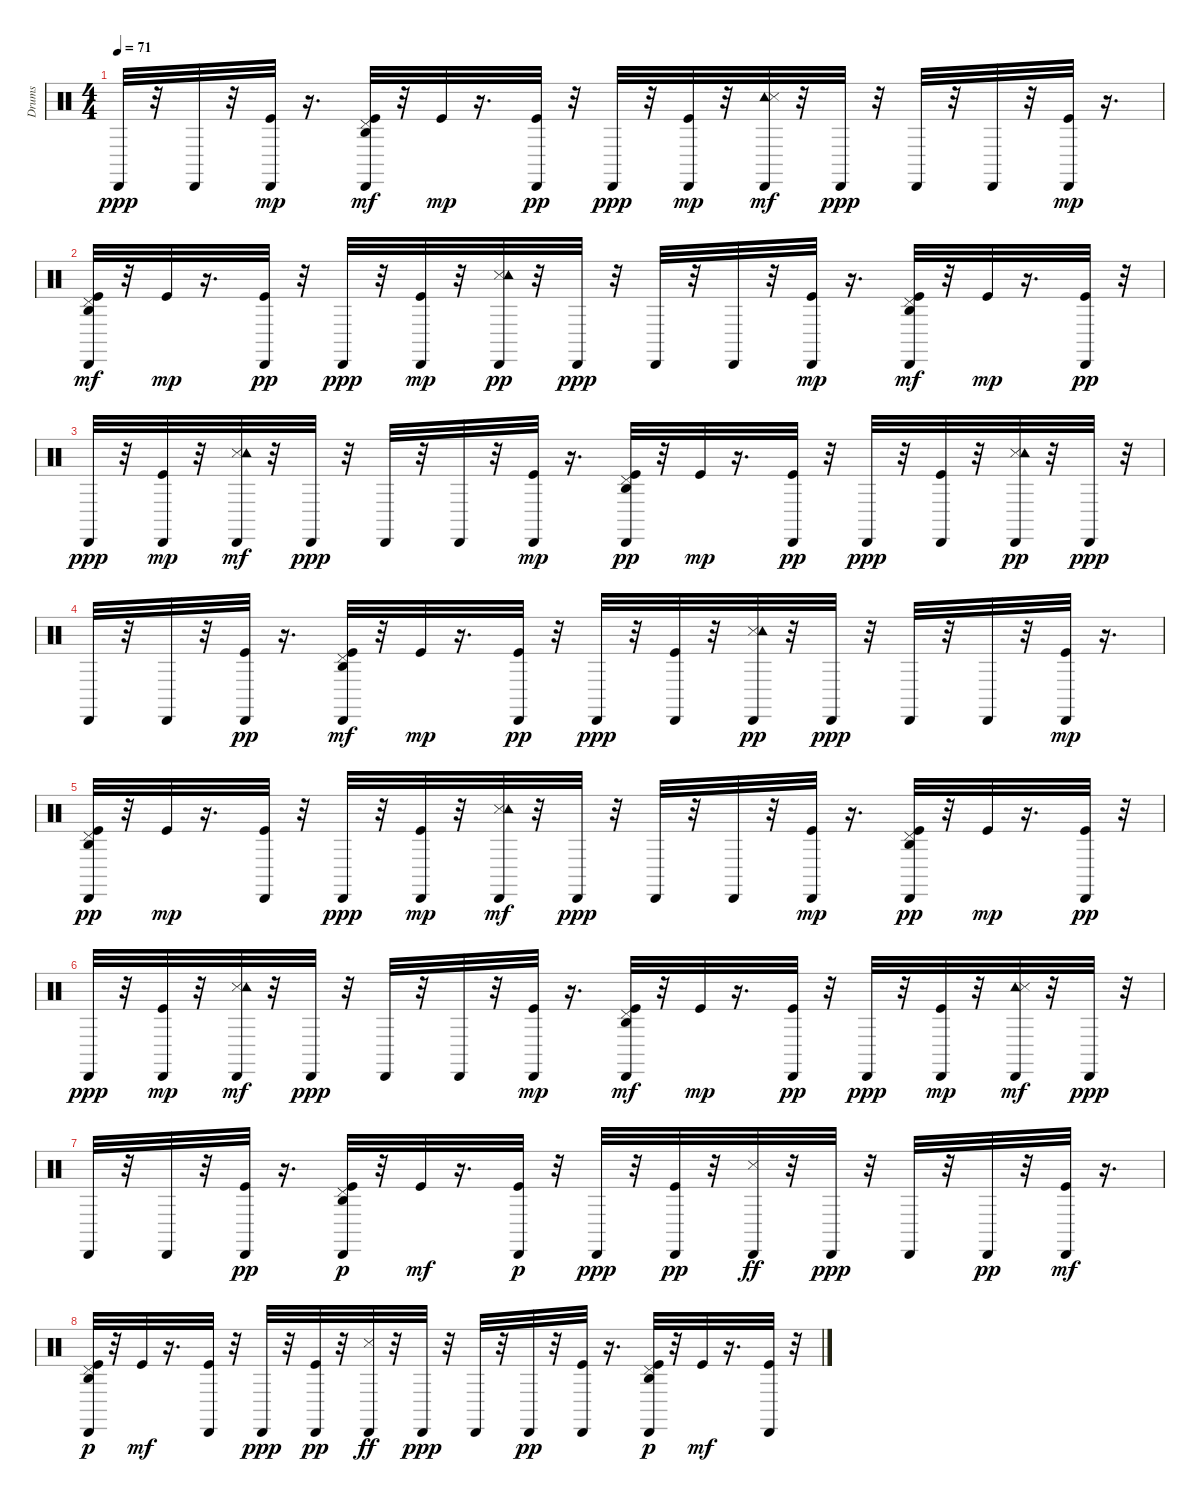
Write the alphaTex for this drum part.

\track ("Drums" "Drums") {instrument percussion}
\staff {score}
\articulation defaults
\ts (4 4)
\tempo 71
\clef neutral
\ks c "Cabasa (hit)".32{dy ppp}
r.32 "Cabasa (hit)".32 r.32 ("Cabasa (hit)" "Kick (hit)").32{dy mp} r.16{d} ("Cabasa (hit)" "Agogo high (hit)" "Pedal Hi-Hat (hit)" "Kick (hit)").32{dy mf} r.32 "Kick (hit)".32{dy mp} r.16{d} ("Kick (hit)" "Cabasa (hit)").32{dy pp} r.32 "Cabasa (hit)".32{dy ppp} r.32 ("Cabasa (hit)" "Kick (hit)").32{dy mp} r.32 ("Cabasa (hit)" "Tambourine (hit)" "Metronome (hit)").32{dy mf} r.32 "Cabasa (hit)".32{dy ppp} r.32 "Cabasa (hit)".32 r.32 "Cabasa (hit)".32 r.32 ("Cabasa (hit)" "Kick (hit)").32{dy mp} r.16{d} |
("Cabasa (hit)" "Agogo high (hit)" "Pedal Hi-Hat (hit)" "Kick (hit)").32{dy mf} r.32 "Kick (hit)".32{dy mp} r.16{d} ("Kick (hit)" "Cabasa (hit)").32{dy pp} r.32 "Cabasa (hit)".32{dy ppp} r.32 ("Cabasa (hit)" "Kick (hit)").32{dy mp} r.32 ("Metronome (hit)" "Tambourine (hit)" "Cabasa (hit)").32{dy pp} r.32 "Cabasa (hit)".32{dy ppp} r.32 "Cabasa (hit)".32 r.32 "Cabasa (hit)".32 r.32 ("Cabasa (hit)" "Kick (hit)").32{dy mp} r.16{d} ("Agogo high (hit)" "Cabasa (hit)" "Pedal Hi-Hat (hit)" "Kick (hit)").32{dy mf} r.32 "Kick (hit)".32{dy mp} r.16{d} ("Kick (hit)" "Cabasa (hit)").32{dy pp} r.32 |
"Cabasa (hit)".32{dy ppp} r.32 ("Cabasa (hit)" "Kick (hit)").32{dy mp} r.32 ("Metronome (hit)" "Cabasa (hit)" "Tambourine (hit)").32{dy mf} r.32 "Cabasa (hit)".32{dy ppp} r.32 "Cabasa (hit)".32 r.32 "Cabasa (hit)".32 r.32 ("Cabasa (hit)" "Kick (hit)").32{dy mp} r.16{d} ("Pedal Hi-Hat (hit)" "Agogo high (hit)" "Cabasa (hit)" "Kick (hit)").32{dy pp} r.32 "Kick (hit)".32{dy mp} r.16{d} ("Kick (hit)" "Cabasa (hit)").32{dy pp} r.32 "Cabasa (hit)".32{dy ppp} r.32 ("Kick (hit)" "Cabasa (hit)").32 r.32 ("Metronome (hit)" "Tambourine (hit)" "Cabasa (hit)").32{dy pp} r.32 "Cabasa (hit)".32{dy ppp} r.32 |
"Cabasa (hit)".32 r.32 "Cabasa (hit)".32 r.32 ("Kick (hit)" "Cabasa (hit)").32{dy pp} r.16{d} ("Cabasa (hit)" "Agogo high (hit)" "Pedal Hi-Hat (hit)" "Kick (hit)").32{dy mf} r.32 "Kick (hit)".32{dy mp} r.16{d} ("Kick (hit)" "Cabasa (hit)").32{dy pp} r.32 "Cabasa (hit)".32{dy ppp} r.32 ("Kick (hit)" "Cabasa (hit)").32 r.32 ("Metronome (hit)" "Tambourine (hit)" "Cabasa (hit)").32{dy pp} r.32 "Cabasa (hit)".32{dy ppp} r.32 "Cabasa (hit)".32 r.32 "Cabasa (hit)".32 r.32 ("Cabasa (hit)" "Kick (hit)").32{dy mp} r.16{d} |
("Pedal Hi-Hat (hit)" "Agogo high (hit)" "Cabasa (hit)" "Kick (hit)").32{dy pp} r.32 "Kick (hit)".32{dy mp} r.16{d} ("Cabasa (hit)" "Kick (hit)").32 r.32 "Cabasa (hit)".32{dy ppp} r.32 ("Cabasa (hit)" "Kick (hit)").32{dy mp} r.32 ("Metronome (hit)" "Cabasa (hit)" "Tambourine (hit)").32{dy mf} r.32 "Cabasa (hit)".32{dy ppp} r.32 "Cabasa (hit)".32 r.32 "Cabasa (hit)".32 r.32 ("Cabasa (hit)" "Kick (hit)").32{dy mp} r.16{d} ("Pedal Hi-Hat (hit)" "Agogo high (hit)" "Cabasa (hit)" "Kick (hit)").32{dy pp} r.32 "Kick (hit)".32{dy mp} r.16{d} ("Kick (hit)" "Cabasa (hit)").32{dy pp} r.32 |
"Cabasa (hit)".32{dy ppp} r.32 ("Cabasa (hit)" "Kick (hit)").32{dy mp} r.32 ("Cabasa (hit)" "Metronome (hit)" "Tambourine (hit)").32{dy mf} r.32 "Cabasa (hit)".32{dy ppp} r.32 "Cabasa (hit)".32 r.32 "Cabasa (hit)".32 r.32 ("Cabasa (hit)" "Kick (hit)").32{dy mp} r.16{d} ("Agogo high (hit)" "Kick (hit)" "Cabasa (hit)" "Pedal Hi-Hat (hit)").32{dy mf} r.32 "Kick (hit)".32{dy mp} r.16{d} ("Kick (hit)" "Cabasa (hit)").32{dy pp} r.32 "Cabasa (hit)".32{dy ppp} r.32 ("Cabasa (hit)" "Kick (hit)").32{dy mp} r.32 ("Cabasa (hit)" "Tambourine (hit)" "Metronome (hit)").32{dy mf} r.32 "Cabasa (hit)".32{dy ppp} r.32 |
"Cabasa (hit)".32 r.32 "Cabasa (hit)".32 r.32 ("Kick (hit)" "Cabasa (hit)").32{dy pp} r.16{d} ("Pedal Hi-Hat (hit)" "Kick (hit)" "Agogo high (hit)" "Cabasa (hit)").32{dy p} r.32 "Kick (hit)".32{dy mf} r.16{d} ("Kick (hit)" "Cabasa (hit)").32{dy p} r.32 "Cabasa (hit)".32{dy ppp} r.32 ("Kick (hit)" "Cabasa (hit)").32{dy pp} r.32 ("Cabasa (hit)" "Metronome (hit)").32{dy ff} r.32 "Cabasa (hit)".32{dy ppp} r.32 "Cabasa (hit)".32 r.32 "Cabasa (hit)".32{dy pp} r.32 ("Cabasa (hit)" "Kick (hit)").32{dy mf} r.16{d} |
("Pedal Hi-Hat (hit)" "Agogo high (hit)" "Kick (hit)" "Cabasa (hit)").32{dy p} r.32 "Kick (hit)".32{dy mf} r.16{d} ("Cabasa (hit)" "Kick (hit)").32 r.32 "Cabasa (hit)".32{dy ppp} r.32 ("Kick (hit)" "Cabasa (hit)").32{dy pp} r.32 ("Cabasa (hit)" "Metronome (hit)").32{dy ff} r.32 "Cabasa (hit)".32{dy ppp} r.32 "Cabasa (hit)".32 r.32 "Cabasa (hit)".32{dy pp} r.32 ("Kick (hit)" "Cabasa (hit)").32 r.16{d} ("Pedal Hi-Hat (hit)" "Cabasa (hit)" "Kick (hit)" "Agogo high (hit)").32{dy p} r.32 "Kick (hit)".32{dy mf} r.16{d} ("Cabasa (hit)" "Kick (hit)").32 r.32
